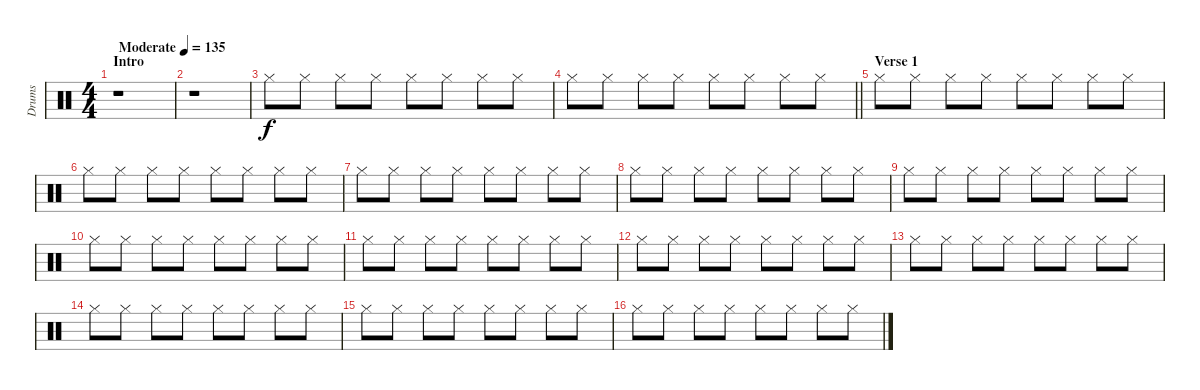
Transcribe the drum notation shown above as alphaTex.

\track ("Drums" "Drums") {instrument percussion}
\staff {score}
\articulation defaults
\ts (4 4)
\section ("" "Intro")
\tempo (135 "Moderate")
\clef neutral
\ks c
r.1{dy f volume 2} |
r.1 |
"Hi-Hat (closed)".8{volume 13} "Hi-Hat (closed)".8 "Hi-Hat (closed)".8 "Hi-Hat (closed)".8 "Hi-Hat (closed)".8 "Hi-Hat (closed)".8 "Hi-Hat (closed)".8 "Hi-Hat (closed)".8 |
\barLineRight lightlight "Hi-Hat (closed)".8 "Hi-Hat (closed)".8 "Hi-Hat (closed)".8 "Hi-Hat (closed)".8 "Hi-Hat (closed)".8 "Hi-Hat (closed)".8 "Hi-Hat (closed)".8 "Hi-Hat (closed)".8
|
\section ("" "Verse 1")
"Hi-Hat (closed)".8 "Hi-Hat (closed)".8 "Hi-Hat (closed)".8 "Hi-Hat (closed)".8 "Hi-Hat (closed)".8 "Hi-Hat (closed)".8 "Hi-Hat (closed)".8 "Hi-Hat (closed)".8 |
"Hi-Hat (closed)".8 "Hi-Hat (closed)".8 "Hi-Hat (closed)".8 "Hi-Hat (closed)".8 "Hi-Hat (closed)".8 "Hi-Hat (closed)".8 "Hi-Hat (closed)".8 "Hi-Hat (closed)".8 |
"Hi-Hat (closed)".8 "Hi-Hat (closed)".8 "Hi-Hat (closed)".8 "Hi-Hat (closed)".8 "Hi-Hat (closed)".8 "Hi-Hat (closed)".8 "Hi-Hat (closed)".8 "Hi-Hat (closed)".8 |
"Hi-Hat (closed)".8 "Hi-Hat (closed)".8 "Hi-Hat (closed)".8 "Hi-Hat (closed)".8 "Hi-Hat (closed)".8 "Hi-Hat (closed)".8 "Hi-Hat (closed)".8 "Hi-Hat (closed)".8 |
"Hi-Hat (closed)".8 "Hi-Hat (closed)".8 "Hi-Hat (closed)".8 "Hi-Hat (closed)".8 "Hi-Hat (closed)".8 "Hi-Hat (closed)".8 "Hi-Hat (closed)".8 "Hi-Hat (closed)".8 |
"Hi-Hat (closed)".8 "Hi-Hat (closed)".8 "Hi-Hat (closed)".8 "Hi-Hat (closed)".8 "Hi-Hat (closed)".8 "Hi-Hat (closed)".8 "Hi-Hat (closed)".8 "Hi-Hat (closed)".8 |
"Hi-Hat (closed)".8 "Hi-Hat (closed)".8 "Hi-Hat (closed)".8 "Hi-Hat (closed)".8 "Hi-Hat (closed)".8 "Hi-Hat (closed)".8 "Hi-Hat (closed)".8 "Hi-Hat (closed)".8 |
"Hi-Hat (closed)".8 "Hi-Hat (closed)".8 "Hi-Hat (closed)".8 "Hi-Hat (closed)".8 "Hi-Hat (closed)".8 "Hi-Hat (closed)".8 "Hi-Hat (closed)".8 "Hi-Hat (closed)".8 |
"Hi-Hat (closed)".8 "Hi-Hat (closed)".8 "Hi-Hat (closed)".8 "Hi-Hat (closed)".8 "Hi-Hat (closed)".8 "Hi-Hat (closed)".8 "Hi-Hat (closed)".8 "Hi-Hat (closed)".8 |
"Hi-Hat (closed)".8 "Hi-Hat (closed)".8 "Hi-Hat (closed)".8 "Hi-Hat (closed)".8 "Hi-Hat (closed)".8 "Hi-Hat (closed)".8 "Hi-Hat (closed)".8 "Hi-Hat (closed)".8 |
"Hi-Hat (closed)".8 "Hi-Hat (closed)".8 "Hi-Hat (closed)".8 "Hi-Hat (closed)".8 "Hi-Hat (closed)".8 "Hi-Hat (closed)".8 "Hi-Hat (closed)".8 "Hi-Hat (closed)".8 |
"Hi-Hat (closed)".8 "Hi-Hat (closed)".8 "Hi-Hat (closed)".8 "Hi-Hat (closed)".8 "Hi-Hat (closed)".8 "Hi-Hat (closed)".8 "Hi-Hat (closed)".8 "Hi-Hat (closed)".8
